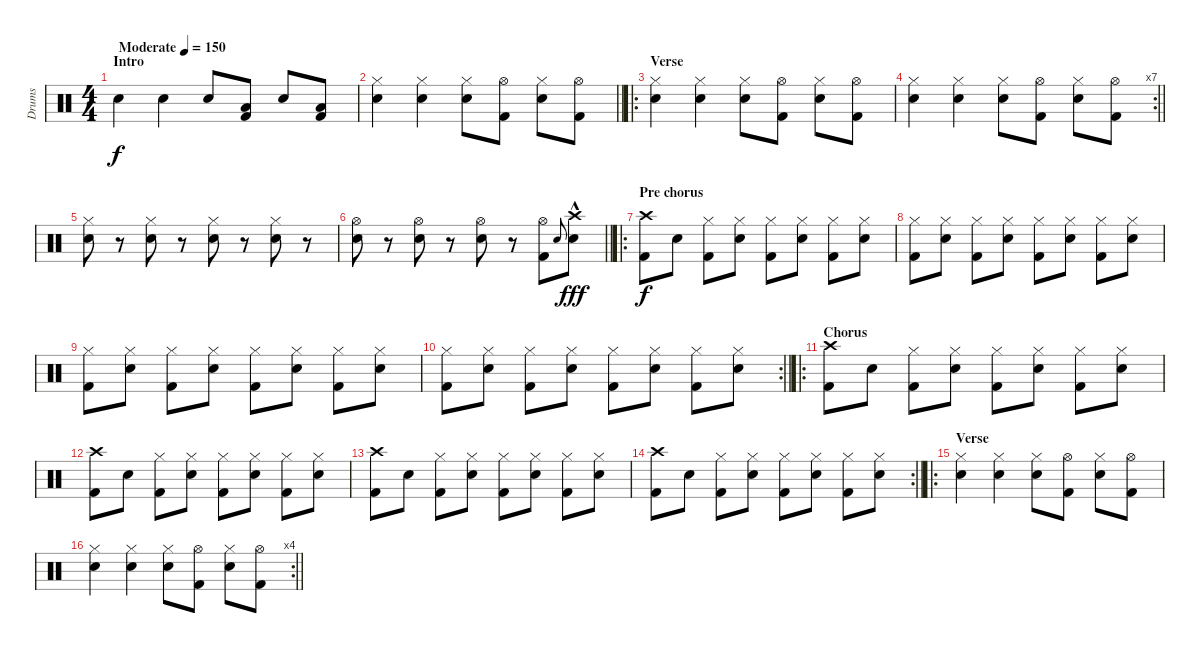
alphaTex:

\track ("Drums" "Drums") {instrument percussion}
\staff {score}
\articulation defaults
\ts (4 4)
\section ("" "Intro")
\tempo (150 "Moderate")
\clef neutral
\ks c "Snare (hit) 2".4{dy f} "Snare (hit) 2".4 "Snare (hit) 2".8
("Low Floor Tom (hit)" "Kick (hit) 2").8 "Snare (hit) 2".8 ("Low Floor Tom (hit)" "Kick (hit) 2").8 |
\barLineRight lightlight
("Hi-Hat (closed)" "Snare (hit) 2").4 ("Hi-Hat (closed)" "Snare (hit) 2").4 ("Hi-Hat (closed)" "Snare (hit) 2").8 ("Hi-Hat (open)" "Kick (hit) 2").8 ("Hi-Hat (closed)" "Snare (hit) 2").8 ("Hi-Hat (open)" "Kick (hit) 2").8 |
\ro
\section ("" "Verse")
("Hi-Hat (closed)" "Snare (hit) 2").4 ("Hi-Hat (closed)" "Snare (hit) 2").4 ("Hi-Hat (closed)" "Snare (hit) 2").8 ("Hi-Hat (open)" "Kick (hit) 2").8 ("Hi-Hat (closed)" "Snare (hit) 2").8 ("Hi-Hat (open)" "Kick (hit) 2").8 |
\rc 7
\barLineRight lightlight
("Hi-Hat (closed)" "Snare (hit) 2").4 ("Hi-Hat (closed)" "Snare (hit) 2").4 ("Hi-Hat (closed)" "Snare (hit) 2").8 ("Hi-Hat (open)" "Kick (hit) 2").8 ("Hi-Hat (closed)" "Snare (hit) 2").8 ("Hi-Hat (open)" "Kick (hit) 2").8 |
("Hi-Hat (closed)" "Snare (hit) 2").8 r.8 ("Hi-Hat (closed)" "Snare (hit) 2").8 r.8 ("Hi-Hat (closed)" "Snare (hit) 2").8 r.8 ("Hi-Hat (closed)" "Snare (hit) 2").8 r.8 |
\barLineRight lightlight
("Hi-Hat (open)" "Snare (hit) 2").8 r.8 ("Hi-Hat (open)" "Snare (hit) 2").8 r.8 ("Hi-Hat (open)" "Snare (hit) 2").8 r.8 ("Hi-Hat (open)" "Kick (hit) 2").8 "Snare (hit) 2".8{gr onbeat} ("Crash high (hit)" "Snare (hit) 2"{hac}).8{dy fff} |
\ro
\section ("" "Pre chorus")
("Crash high (hit)" "Kick (hit) 2").8{dy f} "Electric Snare (hit)".8 ("Hi-Hat (closed)" "Kick (hit) 2").8 ("Hi-Hat (closed)" "Electric Snare (hit)").8 ("Hi-Hat (closed)" "Kick (hit) 2").8 ("Hi-Hat (closed)" "Electric Snare (hit)").8 ("Hi-Hat (closed)" "Kick (hit) 2").8 ("Hi-Hat (closed)" "Electric Snare (hit)").8 |
("Hi-Hat (closed)" "Kick (hit) 2").8 ("Hi-Hat (closed)" "Electric Snare (hit)").8 ("Hi-Hat (closed)" "Kick (hit) 2").8 ("Hi-Hat (closed)" "Electric Snare (hit)").8 ("Hi-Hat (closed)" "Kick (hit) 2").8 ("Hi-Hat (closed)" "Electric Snare (hit)").8 ("Hi-Hat (closed)" "Kick (hit) 2").8 ("Hi-Hat (closed)" "Electric Snare (hit)").8 |
("Hi-Hat (closed)" "Kick (hit) 2").8 ("Hi-Hat (closed)" "Electric Snare (hit)").8 ("Hi-Hat (closed)" "Kick (hit) 2").8 ("Hi-Hat (closed)" "Electric Snare (hit)").8 ("Hi-Hat (closed)" "Kick (hit) 2").8 ("Hi-Hat (closed)" "Electric Snare (hit)").8 ("Hi-Hat (closed)" "Kick (hit) 2").8 ("Hi-Hat (closed)" "Electric Snare (hit)").8 |
\rc 2
\barLineRight lightlight
("Hi-Hat (closed)" "Kick (hit) 2").8 ("Hi-Hat (closed)" "Electric Snare (hit)").8 ("Hi-Hat (closed)" "Kick (hit) 2").8 ("Hi-Hat (closed)" "Electric Snare (hit)").8 ("Hi-Hat (closed)" "Kick (hit) 2").8 ("Hi-Hat (closed)" "Electric Snare (hit)").8 ("Hi-Hat (closed)" "Kick (hit) 2").8 ("Hi-Hat (closed)" "Electric Snare (hit)").8 |
\ro
\section ("" "Chorus")
("Crash high (hit)" "Kick (hit) 2").8 "Electric Snare (hit)".8 ("Hi-Hat (closed)" "Kick (hit) 2").8 ("Hi-Hat (closed)" "Electric Snare (hit)").8 ("Hi-Hat (closed)" "Kick (hit) 2").8 ("Hi-Hat (closed)" "Electric Snare (hit)").8 ("Hi-Hat (closed)" "Kick (hit) 2").8 ("Hi-Hat (closed)" "Electric Snare (hit)").8 |
("Crash high (hit)" "Kick (hit) 2").8 "Electric Snare (hit)".8 ("Hi-Hat (closed)" "Kick (hit) 2").8 ("Hi-Hat (closed)" "Electric Snare (hit)").8 ("Hi-Hat (closed)" "Kick (hit) 2").8 ("Hi-Hat (closed)" "Electric Snare (hit)").8 ("Hi-Hat (closed)" "Kick (hit) 2").8 ("Hi-Hat (closed)" "Electric Snare (hit)").8 |
("Crash high (hit)" "Kick (hit) 2").8 "Electric Snare (hit)".8 ("Hi-Hat (closed)" "Kick (hit) 2").8 ("Hi-Hat (closed)" "Electric Snare (hit)").8 ("Hi-Hat (closed)" "Kick (hit) 2").8 ("Hi-Hat (closed)" "Electric Snare (hit)").8 ("Hi-Hat (closed)" "Kick (hit) 2").8 ("Hi-Hat (closed)" "Electric Snare (hit)").8 |
\rc 2
\barLineRight lightlight
("Crash high (hit)" "Kick (hit) 2").8 "Electric Snare (hit)".8 ("Hi-Hat (closed)" "Kick (hit) 2").8 ("Hi-Hat (closed)" "Electric Snare (hit)").8 ("Hi-Hat (closed)" "Kick (hit) 2").8 ("Hi-Hat (closed)" "Electric Snare (hit)").8 ("Hi-Hat (closed)" "Kick (hit) 2").8 ("Hi-Hat (closed)" "Electric Snare (hit)").8 |
\ro
\section ("" "Verse")
("Hi-Hat (closed)" "Snare (hit) 2").4 ("Hi-Hat (closed)" "Snare (hit) 2").4 ("Hi-Hat (closed)" "Snare (hit) 2").8 ("Hi-Hat (open)" "Kick (hit) 2").8 ("Hi-Hat (closed)" "Snare (hit) 2").8 ("Hi-Hat (open)" "Kick (hit) 2").8 |
\rc 4
\barLineRight lightlight
("Hi-Hat (closed)" "Snare (hit) 2").4 ("Hi-Hat (closed)" "Snare (hit) 2").4 ("Hi-Hat (closed)" "Snare (hit) 2").8 ("Hi-Hat (open)" "Kick (hit) 2").8 ("Hi-Hat (closed)" "Snare (hit) 2").8 ("Hi-Hat (open)" "Kick (hit) 2").8
